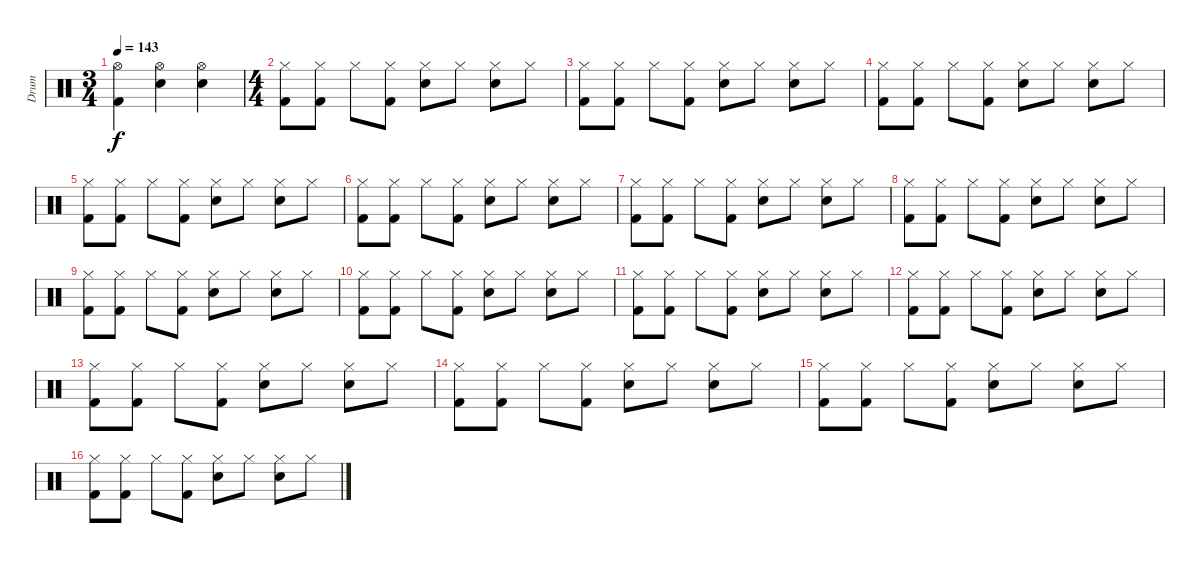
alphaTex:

\track ("Drum" "Drum") {instrument percussion}
\staff {score}
\articulation defaults
\ts (3 4)
\tempo 143
\clef neutral
\ks c
("Hi-Hat (open)" "Kick (hit) 2").4{dy f} ("Hi-Hat (open)" "Electric Snare (hit)").4 ("Hi-Hat (open)" "Electric Snare (hit)").4 |
\ts (4 4)
("Hi-Hat (closed)" "Kick (hit) 2").8 ("Hi-Hat (closed)" "Kick (hit) 2").8 "Hi-Hat (closed)".8 ("Hi-Hat (closed)" "Kick (hit) 2").8 ("Hi-Hat (closed)" "Electric Snare (hit)").8 "Hi-Hat (closed)".8 ("Hi-Hat (closed)" "Electric Snare (hit)").8 "Hi-Hat (closed)".8 |
("Hi-Hat (closed)" "Kick (hit) 2").8 ("Hi-Hat (closed)" "Kick (hit) 2").8 "Hi-Hat (closed)".8 ("Hi-Hat (closed)" "Kick (hit) 2").8 ("Hi-Hat (closed)" "Electric Snare (hit)").8 "Hi-Hat (closed)".8 ("Hi-Hat (closed)" "Electric Snare (hit)").8 "Hi-Hat (closed)".8 |
("Hi-Hat (closed)" "Kick (hit) 2").8 ("Hi-Hat (closed)" "Kick (hit) 2").8 "Hi-Hat (closed)".8 ("Hi-Hat (closed)" "Kick (hit) 2").8 ("Hi-Hat (closed)" "Electric Snare (hit)").8 "Hi-Hat (closed)".8 ("Hi-Hat (closed)" "Electric Snare (hit)").8 "Hi-Hat (closed)".8 |
("Hi-Hat (closed)" "Kick (hit) 2").8 ("Hi-Hat (closed)" "Kick (hit) 2").8 "Hi-Hat (closed)".8 ("Hi-Hat (closed)" "Kick (hit) 2").8 ("Hi-Hat (closed)" "Electric Snare (hit)").8 "Hi-Hat (closed)".8 ("Hi-Hat (closed)" "Electric Snare (hit)").8 "Hi-Hat (closed)".8 |
("Hi-Hat (closed)" "Kick (hit) 2").8 ("Hi-Hat (closed)" "Kick (hit) 2").8 "Hi-Hat (closed)".8 ("Hi-Hat (closed)" "Kick (hit) 2").8 ("Hi-Hat (closed)" "Electric Snare (hit)").8 "Hi-Hat (closed)".8 ("Hi-Hat (closed)" "Electric Snare (hit)").8 "Hi-Hat (closed)".8 |
("Hi-Hat (closed)" "Kick (hit) 2").8 ("Hi-Hat (closed)" "Kick (hit) 2").8 "Hi-Hat (closed)".8 ("Hi-Hat (closed)" "Kick (hit) 2").8 ("Hi-Hat (closed)" "Electric Snare (hit)").8 "Hi-Hat (closed)".8 ("Hi-Hat (closed)" "Electric Snare (hit)").8 "Hi-Hat (closed)".8 |
("Hi-Hat (closed)" "Kick (hit) 2").8 ("Hi-Hat (closed)" "Kick (hit) 2").8 "Hi-Hat (closed)".8 ("Hi-Hat (closed)" "Kick (hit) 2").8 ("Hi-Hat (closed)" "Electric Snare (hit)").8 "Hi-Hat (closed)".8 ("Hi-Hat (closed)" "Electric Snare (hit)").8 "Hi-Hat (closed)".8 |
("Hi-Hat (closed)" "Kick (hit) 2").8 ("Hi-Hat (closed)" "Kick (hit) 2").8 "Hi-Hat (closed)".8 ("Hi-Hat (closed)" "Kick (hit) 2").8 ("Hi-Hat (closed)" "Electric Snare (hit)").8 "Hi-Hat (closed)".8 ("Hi-Hat (closed)" "Electric Snare (hit)").8 "Hi-Hat (closed)".8 |
("Hi-Hat (closed)" "Kick (hit) 2").8 ("Hi-Hat (closed)" "Kick (hit) 2").8 "Hi-Hat (closed)".8 ("Hi-Hat (closed)" "Kick (hit) 2").8 ("Hi-Hat (closed)" "Electric Snare (hit)").8 "Hi-Hat (closed)".8 ("Hi-Hat (closed)" "Electric Snare (hit)").8 "Hi-Hat (closed)".8 |
("Hi-Hat (closed)" "Kick (hit) 2").8 ("Hi-Hat (closed)" "Kick (hit) 2").8 "Hi-Hat (closed)".8 ("Hi-Hat (closed)" "Kick (hit) 2").8 ("Hi-Hat (closed)" "Electric Snare (hit)").8 "Hi-Hat (closed)".8 ("Hi-Hat (closed)" "Electric Snare (hit)").8 "Hi-Hat (closed)".8 |
("Hi-Hat (closed)" "Kick (hit) 2").8 ("Hi-Hat (closed)" "Kick (hit) 2").8 "Hi-Hat (closed)".8 ("Hi-Hat (closed)" "Kick (hit) 2").8 ("Hi-Hat (closed)" "Electric Snare (hit)").8 "Hi-Hat (closed)".8 ("Hi-Hat (closed)" "Electric Snare (hit)").8 "Hi-Hat (closed)".8 |
("Hi-Hat (closed)" "Kick (hit) 2").8 ("Hi-Hat (closed)" "Kick (hit) 2").8 "Hi-Hat (closed)".8 ("Hi-Hat (closed)" "Kick (hit) 2").8 ("Hi-Hat (closed)" "Electric Snare (hit)").8 "Hi-Hat (closed)".8 ("Hi-Hat (closed)" "Electric Snare (hit)").8 "Hi-Hat (closed)".8 |
("Hi-Hat (closed)" "Kick (hit) 2").8 ("Hi-Hat (closed)" "Kick (hit) 2").8 "Hi-Hat (closed)".8 ("Hi-Hat (closed)" "Kick (hit) 2").8 ("Hi-Hat (closed)" "Electric Snare (hit)").8 "Hi-Hat (closed)".8 ("Hi-Hat (closed)" "Electric Snare (hit)").8 "Hi-Hat (closed)".8 |
("Hi-Hat (closed)" "Kick (hit) 2").8 ("Hi-Hat (closed)" "Kick (hit) 2").8 "Hi-Hat (closed)".8 ("Hi-Hat (closed)" "Kick (hit) 2").8 ("Hi-Hat (closed)" "Electric Snare (hit)").8 "Hi-Hat (closed)".8 ("Hi-Hat (closed)" "Electric Snare (hit)").8 "Hi-Hat (closed)".8 |
("Hi-Hat (closed)" "Kick (hit) 2").8 ("Hi-Hat (closed)" "Kick (hit) 2").8 "Hi-Hat (closed)".8 ("Hi-Hat (closed)" "Kick (hit) 2").8 ("Hi-Hat (closed)" "Electric Snare (hit)").8 "Hi-Hat (closed)".8 ("Hi-Hat (closed)" "Electric Snare (hit)").8 "Hi-Hat (closed)".8
